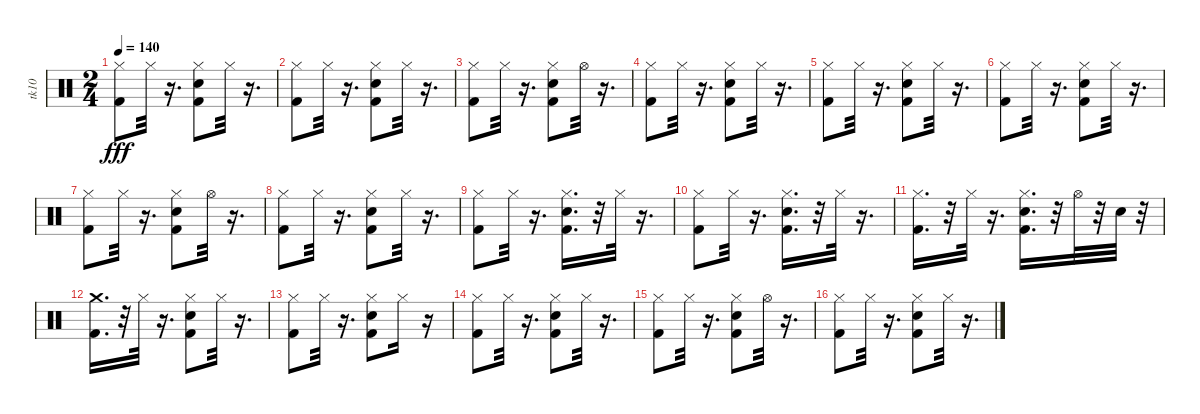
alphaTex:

\track ("tk10" "tk10") {instrument percussion}
\staff {score}
\articulation defaults
\ts (2 4)
\tempo 140
\clef neutral
\ks c
("Kick (hit) 2" "Hi-Hat (closed)").8{dy fff} "Hi-Hat (closed)".32 r.16{d} ("Kick (hit) 2" "Hi-Hat (closed)" "Snare (hit) 2").8 "Hi-Hat (closed)".32 r.16{d} |
("Kick (hit) 2" "Hi-Hat (closed)").8 "Hi-Hat (closed)".32 r.16{d} ("Snare (hit) 2" "Kick (hit) 2" "Hi-Hat (closed)").8 "Hi-Hat (closed)".32 r.16{d} |
("Kick (hit) 2" "Hi-Hat (closed)").8 "Hi-Hat (closed)".32 r.16{d} ("Snare (hit) 2" "Kick (hit) 2" "Hi-Hat (closed)").8 "Hi-Hat (open)".32 r.16{d} |
("Kick (hit) 2" "Hi-Hat (closed)").8 "Hi-Hat (closed)".32 r.16{d} ("Snare (hit) 2" "Kick (hit) 2" "Hi-Hat (closed)").8 "Hi-Hat (closed)".32 r.16{d} |
("Kick (hit) 2" "Hi-Hat (closed)").8 "Hi-Hat (closed)".32 r.16{d} ("Snare (hit) 2" "Kick (hit) 2" "Hi-Hat (closed)").8 "Hi-Hat (closed)".32 r.16{d} |
("Kick (hit) 2" "Hi-Hat (closed)").8 "Hi-Hat (closed)".32 r.16{d} ("Hi-Hat (closed)" "Snare (hit) 2" "Kick (hit) 2").8 "Hi-Hat (closed)".32 r.16{d} |
("Kick (hit) 2" "Hi-Hat (closed)").8 "Hi-Hat (closed)".32 r.16{d} ("Snare (hit) 2" "Kick (hit) 2" "Hi-Hat (closed)").8 "Hi-Hat (open)".32 r.16{d} |
("Kick (hit) 2" "Hi-Hat (closed)").8 "Hi-Hat (closed)".32 r.16{d} ("Kick (hit) 2" "Hi-Hat (closed)" "Snare (hit) 2").8 "Hi-Hat (closed)".32 r.16{d} |
("Kick (hit) 2" "Hi-Hat (closed)").8 "Hi-Hat (closed)".32 r.16{d} ("Snare (hit) 2" "Kick (hit) 2" "Hi-Hat (closed)").16{d} r.32 "Hi-Hat (closed)".32 r.16{d} |
("Kick (hit) 2" "Hi-Hat (closed)").8 "Hi-Hat (closed)".32 r.16{d} ("Snare (hit) 2" "Kick (hit) 2" "Hi-Hat (closed)").16{d} r.32 "Hi-Hat (closed)".32 r.16{d} |
("Kick (hit) 2" "Hi-Hat (closed)").16{d} r.32 "Hi-Hat (closed)".32 r.16{d} ("Hi-Hat (closed)" "Snare (hit) 2" "Kick (hit) 2").16{d} r.32 "Hi-Hat (open)".32 r.32 "Snare (hit) 2".32 r.32 |
("Kick (hit) 2" "Crash medium (hit)").16{d} r.32 "Hi-Hat (closed)".32 r.16{d} ("Hi-Hat (closed)" "Kick (hit) 2" "Snare (hit) 2").8 "Hi-Hat (closed)".32 r.16{d} |
("Kick (hit) 2" "Hi-Hat (closed)").8 "Hi-Hat (closed)".32 r.16{d} ("Snare (hit) 2" "Kick (hit) 2" "Hi-Hat (closed)").8 "Hi-Hat (closed)".16 r.16 |
("Kick (hit) 2" "Hi-Hat (closed)").8 "Hi-Hat (closed)".32 r.16{d} ("Hi-Hat (closed)" "Snare (hit) 2" "Kick (hit) 2").8 "Hi-Hat (closed)".32 r.16{d} |
("Kick (hit) 2" "Hi-Hat (closed)").8 "Hi-Hat (closed)".32 r.16{d} ("Snare (hit) 2" "Hi-Hat (closed)" "Kick (hit) 2").8 "Hi-Hat (open)".32 r.16{d} |
("Kick (hit) 2" "Hi-Hat (closed)").8 "Hi-Hat (closed)".32 r.16{d} ("Snare (hit) 2" "Kick (hit) 2" "Hi-Hat (closed)").8 "Hi-Hat (closed)".32 r.16{d}
